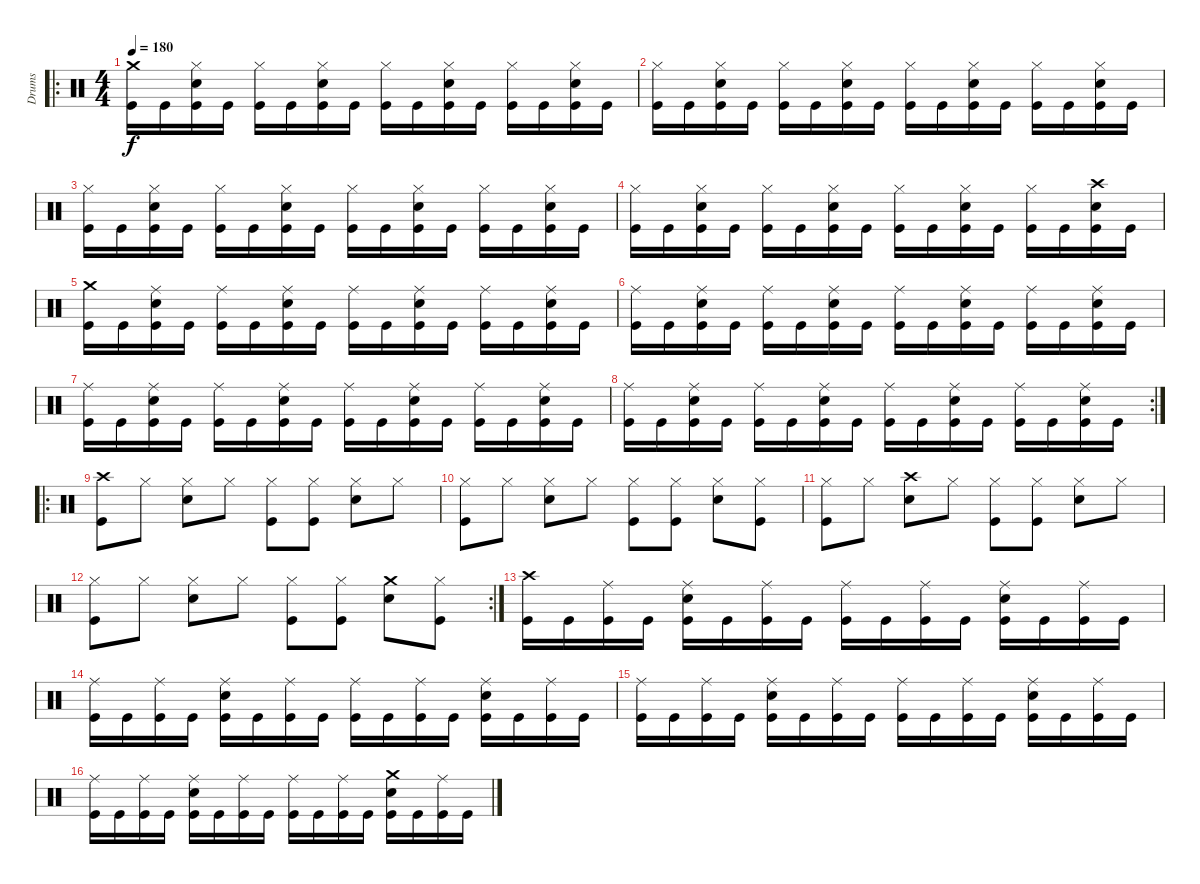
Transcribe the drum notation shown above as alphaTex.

\track ("Drums" "Drums") {instrument percussion}
\staff {score}
\articulation defaults
\ro
\ts (4 4)
\tempo 180
\clef neutral
\ks c
("Crash medium (hit)" "Kick (hit)").16{dy f} "Kick (hit)".16 ("Hi-Hat (closed)" "Snare (hit) 2" "Kick (hit)").16 "Kick (hit)".16 ("Hi-Hat (closed)" "Kick (hit)").16 "Kick (hit)".16 ("Hi-Hat (closed)" "Snare (hit) 2" "Kick (hit)").16 "Kick (hit)".16 ("Hi-Hat (closed)" "Kick (hit)").16 "Kick (hit)".16 ("Hi-Hat (closed)" "Snare (hit) 2" "Kick (hit)").16 "Kick (hit)".16 ("Hi-Hat (closed)" "Kick (hit)").16 "Kick (hit)".16 ("Hi-Hat (closed)" "Snare (hit) 2" "Kick (hit)").16 "Kick (hit)".16 |
("Hi-Hat (closed)" "Kick (hit)").16 "Kick (hit)".16 ("Hi-Hat (closed)" "Snare (hit) 2" "Kick (hit)").16 "Kick (hit)".16 ("Hi-Hat (closed)" "Kick (hit)").16 "Kick (hit)".16 ("Hi-Hat (closed)" "Snare (hit) 2" "Kick (hit)").16 "Kick (hit)".16 ("Hi-Hat (closed)" "Kick (hit)").16 "Kick (hit)".16 ("Hi-Hat (closed)" "Snare (hit) 2" "Kick (hit)").16 "Kick (hit)".16 ("Hi-Hat (closed)" "Kick (hit)").16 "Kick (hit)".16 ("Hi-Hat (closed)" "Snare (hit) 2" "Kick (hit)").16 "Kick (hit)".16 |
("Hi-Hat (closed)" "Kick (hit)").16 "Kick (hit)".16 ("Hi-Hat (closed)" "Snare (hit) 2" "Kick (hit)").16 "Kick (hit)".16 ("Hi-Hat (closed)" "Kick (hit)").16 "Kick (hit)".16 ("Hi-Hat (closed)" "Snare (hit) 2" "Kick (hit)").16 "Kick (hit)".16 ("Hi-Hat (closed)" "Kick (hit)").16 "Kick (hit)".16 ("Hi-Hat (closed)" "Snare (hit) 2" "Kick (hit)").16 "Kick (hit)".16 ("Hi-Hat (closed)" "Kick (hit)").16 "Kick (hit)".16 ("Hi-Hat (closed)" "Snare (hit) 2" "Kick (hit)").16 "Kick (hit)".16 |
("Hi-Hat (closed)" "Kick (hit)").16 "Kick (hit)".16 ("Hi-Hat (closed)" "Snare (hit) 2" "Kick (hit)").16 "Kick (hit)".16 ("Hi-Hat (closed)" "Kick (hit)").16 "Kick (hit)".16 ("Hi-Hat (closed)" "Snare (hit) 2" "Kick (hit)").16 "Kick (hit)".16 ("Hi-Hat (closed)" "Kick (hit)").16 "Kick (hit)".16 ("Hi-Hat (closed)" "Snare (hit) 2" "Kick (hit)").16 "Kick (hit)".16 ("Hi-Hat (closed)" "Kick (hit)").16 "Kick (hit)".16 ("Crash high (hit)" "Snare (hit) 2" "Kick (hit)").16 "Kick (hit)".16 |
("Crash medium (hit)" "Kick (hit)").16 "Kick (hit)".16 ("Ride (middle)" "Snare (hit) 2" "Kick (hit)").16 "Kick (hit)".16 ("Ride (middle)" "Kick (hit)").16 "Kick (hit)".16 ("Ride (middle)" "Snare (hit) 2" "Kick (hit)").16 "Kick (hit)".16 ("Ride (middle)" "Kick (hit)").16 "Kick (hit)".16 ("Ride (middle)" "Snare (hit) 2" "Kick (hit)").16 "Kick (hit)".16 ("Ride (middle)" "Kick (hit)").16 "Kick (hit)".16 ("Ride (middle)" "Snare (hit) 2" "Kick (hit)").16 "Kick (hit)".16 |
("Ride (middle)" "Kick (hit)").16 "Kick (hit)".16 ("Ride (middle)" "Snare (hit) 2" "Kick (hit)").16 "Kick (hit)".16 ("Ride (middle)" "Kick (hit)").16 "Kick (hit)".16 ("Ride (middle)" "Snare (hit) 2" "Kick (hit)").16 "Kick (hit)".16 ("Ride (middle)" "Kick (hit)").16 "Kick (hit)".16 ("Ride (middle)" "Snare (hit) 2" "Kick (hit)").16 "Kick (hit)".16 ("Ride (middle)" "Kick (hit)").16 "Kick (hit)".16 ("Ride (middle)" "Snare (hit) 2" "Kick (hit)").16 "Kick (hit)".16 |
("Ride (middle)" "Kick (hit)").16 "Kick (hit)".16 ("Ride (middle)" "Snare (hit) 2" "Kick (hit)").16 "Kick (hit)".16 ("Ride (middle)" "Kick (hit)").16 "Kick (hit)".16 ("Ride (middle)" "Snare (hit) 2" "Kick (hit)").16 "Kick (hit)".16 ("Ride (middle)" "Kick (hit)").16 "Kick (hit)".16 ("Ride (middle)" "Snare (hit) 2" "Kick (hit)").16 "Kick (hit)".16 ("Ride (middle)" "Kick (hit)").16 "Kick (hit)".16 ("Ride (middle)" "Snare (hit) 2" "Kick (hit)").16 "Kick (hit)".16 |
\rc 2
("Ride (middle)" "Kick (hit)").16 "Kick (hit)".16 ("Ride (middle)" "Snare (hit) 2" "Kick (hit)").16 "Kick (hit)".16 ("Ride (middle)" "Kick (hit)").16 "Kick (hit)".16 ("Ride (middle)" "Snare (hit) 2" "Kick (hit)").16 "Kick (hit)".16 ("Ride (middle)" "Kick (hit)").16 "Kick (hit)".16 ("Ride (middle)" "Snare (hit) 2" "Kick (hit)").16 "Kick (hit)".16 ("Ride (middle)" "Kick (hit)").16 "Kick (hit)".16 ("Ride (middle)" "Snare (hit) 2" "Kick (hit)").16 "Kick (hit)".16 |
\ro
("Crash high (hit)" "Kick (hit)").8 "Hi-Hat (closed)".8 ("Hi-Hat (closed)" "Snare (hit) 2").8 "Hi-Hat (closed)".8 ("Hi-Hat (closed)" "Kick (hit)").8 ("Hi-Hat (closed)" "Kick (hit)").8 ("Hi-Hat (closed)" "Snare (hit) 2").8 "Hi-Hat (closed)".8 |
("Hi-Hat (closed)" "Kick (hit)").8 "Hi-Hat (closed)".8 ("Hi-Hat (closed)" "Snare (hit) 2").8 "Hi-Hat (closed)".8 ("Hi-Hat (closed)" "Kick (hit)").8 ("Hi-Hat (closed)" "Kick (hit)").8 ("Hi-Hat (closed)" "Snare (hit) 2").8 ("Hi-Hat (closed)" "Kick (hit)").8 |
("Hi-Hat (closed)" "Kick (hit)").8 "Hi-Hat (closed)".8 ("Crash high (hit)" "Snare (hit) 2").8 "Hi-Hat (closed)".8 ("Hi-Hat (closed)" "Kick (hit)").8 ("Hi-Hat (closed)" "Kick (hit)").8 ("Hi-Hat (closed)" "Snare (hit) 2").8 "Hi-Hat (closed)".8 |
\rc 2
("Hi-Hat (closed)" "Kick (hit)").8 "Hi-Hat (closed)".8 ("Hi-Hat (closed)" "Snare (hit) 2").8 "Hi-Hat (closed)".8 ("Hi-Hat (closed)" "Kick (hit)").8 ("Hi-Hat (closed)" "Kick (hit)").8 ("Crash medium (hit)" "Snare (hit) 2").8 ("Hi-Hat (closed)" "Kick (hit)").8 |
("Crash high (hit)" "Kick (hit)").16 "Kick (hit)".16 ("Ride (middle)" "Kick (hit)").16 "Kick (hit)".16 ("Ride (middle)" "Snare (hit) 2" "Kick (hit)").16 "Kick (hit)".16 ("Ride (middle)" "Kick (hit)").16 "Kick (hit)".16 ("Ride (middle)" "Kick (hit)").16 "Kick (hit)".16 ("Ride (middle)" "Kick (hit)").16 "Kick (hit)".16 ("Ride (middle)" "Snare (hit) 2" "Kick (hit)").16 "Kick (hit)".16 ("Ride (middle)" "Kick (hit)").16 "Kick (hit)".16 |
("Ride (middle)" "Kick (hit)").16 "Kick (hit)".16 ("Ride (middle)" "Kick (hit)").16 "Kick (hit)".16 ("Ride (middle)" "Snare (hit) 2" "Kick (hit)").16 "Kick (hit)".16 ("Ride (middle)" "Kick (hit)").16 "Kick (hit)".16 ("Ride (middle)" "Kick (hit)").16 "Kick (hit)".16 ("Ride (middle)" "Kick (hit)").16 "Kick (hit)".16 ("Ride (middle)" "Snare (hit) 2" "Kick (hit)").16 "Kick (hit)".16 ("Ride (middle)" "Kick (hit)").16 "Kick (hit)".16 |
("Ride (middle)" "Kick (hit)").16 "Kick (hit)".16 ("Ride (middle)" "Kick (hit)").16 "Kick (hit)".16 ("Ride (middle)" "Snare (hit) 2" "Kick (hit)").16 "Kick (hit)".16 ("Ride (middle)" "Kick (hit)").16 "Kick (hit)".16 ("Ride (middle)" "Kick (hit)").16 "Kick (hit)".16 ("Ride (middle)" "Kick (hit)").16 "Kick (hit)".16 ("Ride (middle)" "Snare (hit) 2" "Kick (hit)").16 "Kick (hit)".16 ("Ride (middle)" "Kick (hit)").16 "Kick (hit)".16 |
("Ride (middle)" "Kick (hit)").16 "Kick (hit)".16 ("Ride (middle)" "Kick (hit)").16 "Kick (hit)".16 ("Ride (middle)" "Snare (hit) 2" "Kick (hit)").16 "Kick (hit)".16 ("Ride (middle)" "Kick (hit)").16 "Kick (hit)".16 ("Ride (middle)" "Kick (hit)").16 "Kick (hit)".16 ("Ride (middle)" "Kick (hit)").16 "Kick (hit)".16 ("Crash medium (hit)" "Snare (hit) 2" "Kick (hit)").16 "Kick (hit)".16 ("Ride (middle)" "Kick (hit)").16 "Kick (hit)".16
